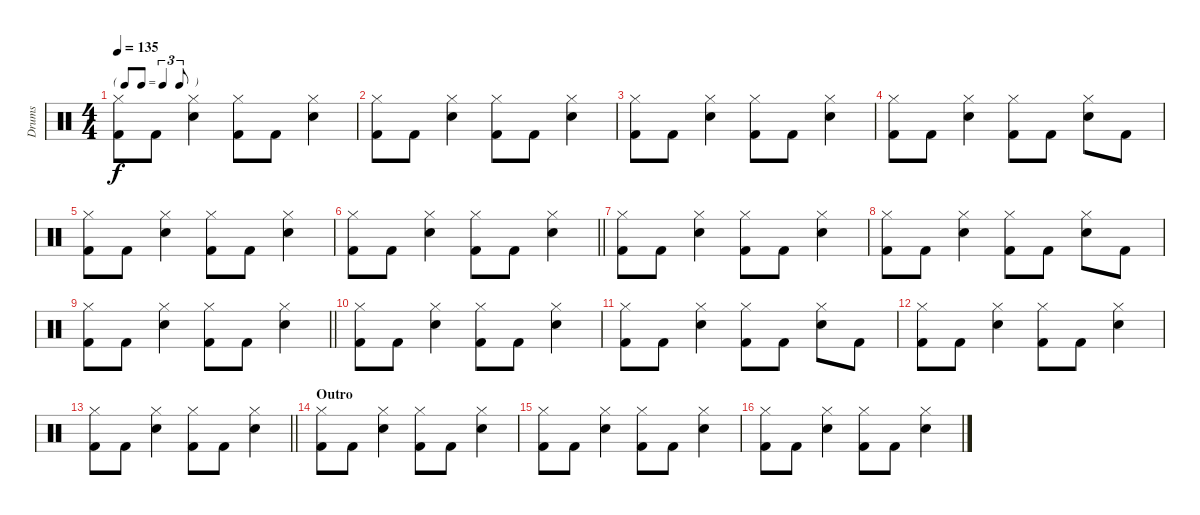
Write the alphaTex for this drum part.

\track ("Drums" "Drums") {instrument percussion}
\staff {score}
\articulation defaults
\ts (4 4)
\tf triplet8th
\tempo 135
\clef neutral
\ks c
("Hi-Hat (closed)" "Kick (hit) 2").8{dy f} "Kick (hit) 2".8 ("Hi-Hat (closed)" "Snare (hit) 2").4 ("Hi-Hat (closed)" "Kick (hit) 2").8 "Kick (hit) 2".8 ("Hi-Hat (closed)" "Snare (hit) 2").4 |
("Hi-Hat (closed)" "Kick (hit) 2").8 "Kick (hit) 2".8 ("Hi-Hat (closed)" "Snare (hit) 2").4 ("Hi-Hat (closed)" "Kick (hit) 2").8 "Kick (hit) 2".8 ("Hi-Hat (closed)" "Snare (hit) 2").4 |
("Hi-Hat (closed)" "Kick (hit) 2").8 "Kick (hit) 2".8 ("Hi-Hat (closed)" "Snare (hit) 2").4 ("Hi-Hat (closed)" "Kick (hit) 2").8 "Kick (hit) 2".8 ("Hi-Hat (closed)" "Snare (hit) 2").4 |
("Hi-Hat (closed)" "Kick (hit) 2").8 "Kick (hit) 2".8 ("Hi-Hat (closed)" "Snare (hit) 2").4 ("Hi-Hat (closed)" "Kick (hit) 2").8 "Kick (hit) 2".8 ("Hi-Hat (closed)" "Snare (hit) 2").8 "Kick (hit) 2".8 |
("Hi-Hat (closed)" "Kick (hit) 2").8 "Kick (hit) 2".8 ("Hi-Hat (closed)" "Snare (hit) 2").4 ("Hi-Hat (closed)" "Kick (hit) 2").8 "Kick (hit) 2".8 ("Hi-Hat (closed)" "Snare (hit) 2").4 |
\barLineRight lightlight
("Hi-Hat (closed)" "Kick (hit) 2").8 "Kick (hit) 2".8 ("Hi-Hat (closed)" "Snare (hit) 2").4 ("Hi-Hat (closed)" "Kick (hit) 2").8 "Kick (hit) 2".8 ("Hi-Hat (closed)" "Snare (hit) 2").4 |
("Hi-Hat (closed)" "Kick (hit) 2").8 "Kick (hit) 2".8 ("Hi-Hat (closed)" "Snare (hit) 2").4 ("Hi-Hat (closed)" "Kick (hit) 2").8 "Kick (hit) 2".8 ("Hi-Hat (closed)" "Snare (hit) 2").4 |
("Hi-Hat (closed)" "Kick (hit) 2").8 "Kick (hit) 2".8 ("Hi-Hat (closed)" "Snare (hit) 2").4 ("Hi-Hat (closed)" "Kick (hit) 2").8 "Kick (hit) 2".8 ("Hi-Hat (closed)" "Snare (hit) 2").8 "Kick (hit) 2".8 |
\barLineRight lightlight
("Hi-Hat (closed)" "Kick (hit) 2").8 "Kick (hit) 2".8 ("Hi-Hat (closed)" "Snare (hit) 2").4 ("Hi-Hat (closed)" "Kick (hit) 2").8 "Kick (hit) 2".8 ("Hi-Hat (closed)" "Snare (hit) 2").4 |
("Hi-Hat (closed)" "Kick (hit) 2").8 "Kick (hit) 2".8 ("Hi-Hat (closed)" "Snare (hit) 2").4 ("Hi-Hat (closed)" "Kick (hit) 2").8 "Kick (hit) 2".8 ("Hi-Hat (closed)" "Snare (hit) 2").4 |
("Hi-Hat (closed)" "Kick (hit) 2").8 "Kick (hit) 2".8 ("Hi-Hat (closed)" "Snare (hit) 2").4 ("Hi-Hat (closed)" "Kick (hit) 2").8 "Kick (hit) 2".8 ("Hi-Hat (closed)" "Snare (hit) 2").8 "Kick (hit) 2".8 |
("Hi-Hat (closed)" "Kick (hit) 2").8 "Kick (hit) 2".8 ("Hi-Hat (closed)" "Snare (hit) 2").4 ("Hi-Hat (closed)" "Kick (hit) 2").8 "Kick (hit) 2".8 ("Hi-Hat (closed)" "Snare (hit) 2").4 |
\barLineRight lightlight
("Hi-Hat (closed)" "Kick (hit) 2").8 "Kick (hit) 2".8 ("Hi-Hat (closed)" "Snare (hit) 2").4 ("Hi-Hat (closed)" "Kick (hit) 2").8 "Kick (hit) 2".8 ("Hi-Hat (closed)" "Snare (hit) 2").4 |
\section ("" "Outro")
("Hi-Hat (closed)" "Kick (hit) 2").8 "Kick (hit) 2".8 ("Hi-Hat (closed)" "Snare (hit) 2").4 ("Hi-Hat (closed)" "Kick (hit) 2").8 "Kick (hit) 2".8 ("Hi-Hat (closed)" "Snare (hit) 2").4 |
("Hi-Hat (closed)" "Kick (hit) 2").8 "Kick (hit) 2".8 ("Hi-Hat (closed)" "Snare (hit) 2").4 ("Hi-Hat (closed)" "Kick (hit) 2").8 "Kick (hit) 2".8 ("Hi-Hat (closed)" "Snare (hit) 2").4 |
("Hi-Hat (closed)" "Kick (hit) 2").8 "Kick (hit) 2".8 ("Hi-Hat (closed)" "Snare (hit) 2").4 ("Hi-Hat (closed)" "Kick (hit) 2").8 "Kick (hit) 2".8 ("Hi-Hat (closed)" "Snare (hit) 2").4
